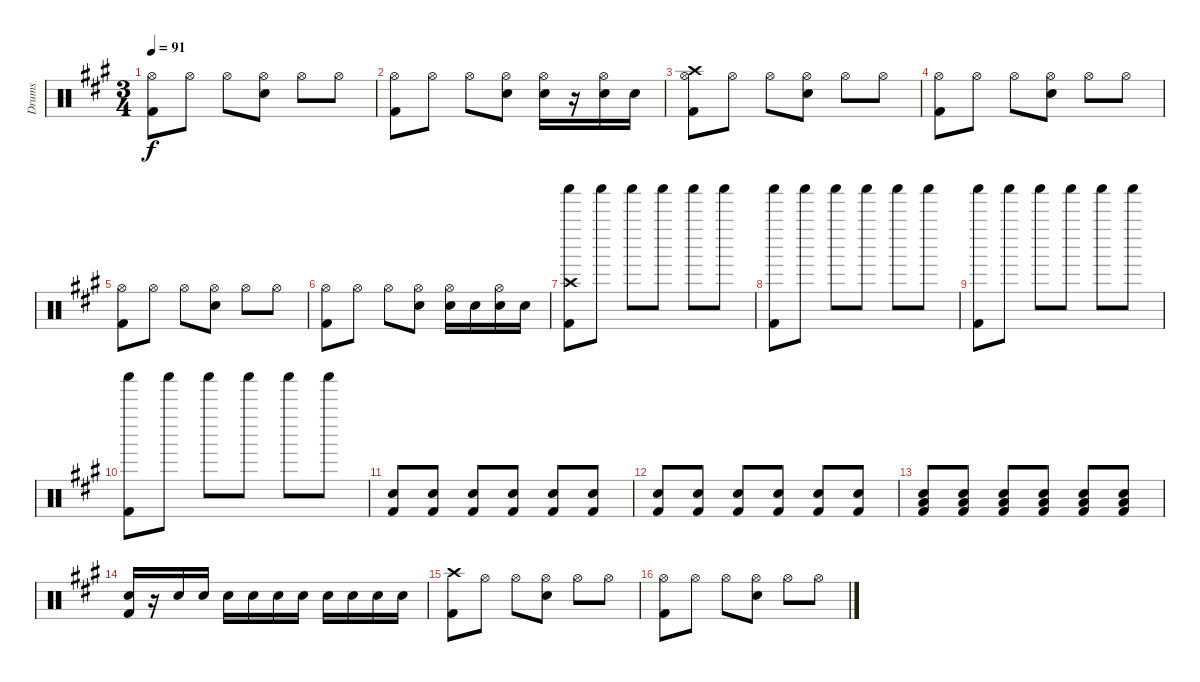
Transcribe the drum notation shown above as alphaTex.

\track ("Drums" "Drums") {instrument percussion}
\staff {score}
\articulation defaults
\ts (3 4)
\tempo 91
\clef neutral
\ks a
("Hi-Hat (open)" "Kick (hit) 2").8{dy f} "Hi-Hat (open)".8 "Hi-Hat (open)".8 ("Hi-Hat (open)" "Snare (hit) 2").8 "Hi-Hat (open)".8 "Hi-Hat (open)".8 |
("Hi-Hat (open)" "Kick (hit) 2").8 "Hi-Hat (open)".8 "Hi-Hat (open)".8 ("Hi-Hat (open)" "Snare (hit) 2").8 ("Hi-Hat (open)" "Snare (hit) 2").16 r.16 ("Hi-Hat (open)" "Snare (hit) 2").16 "Snare (hit) 2".16 |
("Hi-Hat (open)" "Kick (hit) 2" "Crash high (hit)").8 "Hi-Hat (open)".8 "Hi-Hat (open)".8 ("Hi-Hat (open)" "Snare (hit) 2").8 "Hi-Hat (open)".8 "Hi-Hat (open)".8 |
("Hi-Hat (open)" "Kick (hit) 2").8 "Hi-Hat (open)".8 "Hi-Hat (open)".8 ("Hi-Hat (open)" "Snare (hit) 2").8 "Hi-Hat (open)".8 "Hi-Hat (open)".8 |
("Hi-Hat (open)" "Kick (hit) 2").8 "Hi-Hat (open)".8 "Hi-Hat (open)".8 ("Hi-Hat (open)" "Snare (hit) 2").8 "Hi-Hat (open)".8 "Hi-Hat (open)".8 |
("Hi-Hat (open)" "Kick (hit) 2").8 "Hi-Hat (open)".8 "Hi-Hat (open)".8 ("Hi-Hat (open)" "Snare (hit) 2").8 ("Hi-Hat (open)" "Snare (hit) 2").16 "Snare (hit) 2".16 ("Hi-Hat (open)" "Snare (hit) 2").16 "Snare (hit) 2".16 |
("Shaker (hit)" "Kick (hit) 2" "Crash high (hit)").8 "Shaker (hit)".8 "Shaker (hit)".8 "Shaker (hit)".8 "Shaker (hit)".8 "Shaker (hit)".8 |
("Shaker (hit)" "Kick (hit) 2").8 "Shaker (hit)".8 "Shaker (hit)".8 "Shaker (hit)".8 "Shaker (hit)".8 "Shaker (hit)".8 |
("Shaker (hit)" "Kick (hit) 2").8 "Shaker (hit)".8 "Shaker (hit)".8 "Shaker (hit)".8 "Shaker (hit)".8 "Shaker (hit)".8 |
("Shaker (hit)" "Kick (hit) 2").8 "Shaker (hit)".8 "Shaker (hit)".8 "Shaker (hit)".8 "Shaker (hit)".8 "Shaker (hit)".8 |
("Kick (hit) 2" "Snare (hit) 2").8 ("Kick (hit) 2" "Snare (hit) 2").8 ("Kick (hit) 2" "Snare (hit) 2").8 ("Kick (hit) 2" "Snare (hit) 2").8 ("Kick (hit) 2" "Snare (hit) 2").8 ("Kick (hit) 2" "Snare (hit) 2").8 |
("Kick (hit) 2" "Snare (hit) 2").8 ("Kick (hit) 2" "Snare (hit) 2").8 ("Kick (hit) 2" "Snare (hit) 2").8 ("Kick (hit) 2" "Snare (hit) 2").8 ("Kick (hit) 2" "Snare (hit) 2").8 ("Kick (hit) 2" "Snare (hit) 2").8 |
("Kick (hit) 2" "Low Floor Tom (hit)" "Snare (hit) 2").8 ("Kick (hit) 2" "Low Floor Tom (hit)" "Snare (hit) 2").8 ("Kick (hit) 2" "Low Floor Tom (hit)" "Snare (hit) 2").8 ("Kick (hit) 2" "Low Floor Tom (hit)" "Snare (hit) 2").8 ("Kick (hit) 2" "Low Floor Tom (hit)" "Snare (hit) 2").8 ("Kick (hit) 2" "Low Floor Tom (hit)" "Snare (hit) 2").8 |
("Kick (hit) 2" "Snare (hit) 2").16 r.16 "Snare (hit) 2".16 "Snare (hit) 2".16 "Snare (hit) 2".16 "Snare (hit) 2".16 "Snare (hit) 2".16 "Snare (hit) 2".16 "Snare (hit) 2".16 "Snare (hit) 2".16 "Snare (hit) 2".16 "Snare (hit) 2".16 |
("Kick (hit) 2" "Crash high (hit)").8 "Hi-Hat (open)".8 "Hi-Hat (open)".8 ("Hi-Hat (open)" "Snare (hit) 2").8 "Hi-Hat (open)".8 "Hi-Hat (open)".8 |
("Hi-Hat (open)" "Kick (hit) 2").8 "Hi-Hat (open)".8 "Hi-Hat (open)".8 ("Hi-Hat (open)" "Snare (hit) 2").8 "Hi-Hat (open)".8 "Hi-Hat (open)".8
